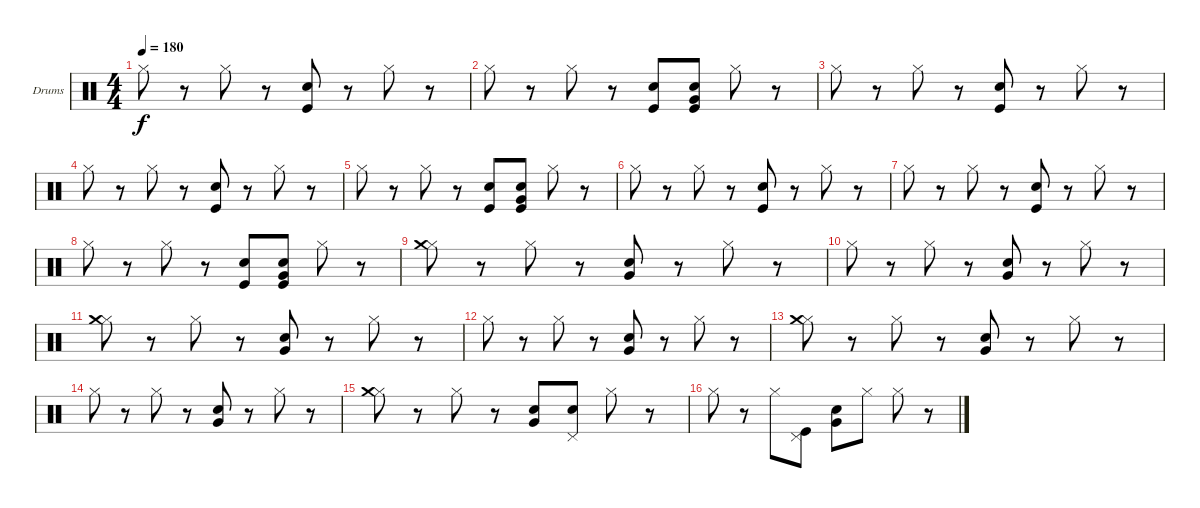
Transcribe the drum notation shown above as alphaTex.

\bracketExtendMode groupsimilarinstruments
\firstSystemTrackNameOrientation horizontal
\otherSystemsTrackNameOrientation horizontal
\track ("Drumkit" "Drums") {instrument percussion}
\staff {score}
\articulation defaults
\ts (4 4)
\tempo 180
\clef neutral
\ks c "Hi-Hat (closed)".8{dy f}
r.8 "Hi-Hat (closed)".8 r.8 ("Snare (hit) 2" "Kick (hit)").8 r.8 "Hi-Hat (closed)".8 r.8 |
"Hi-Hat (closed)".8 r.8 "Hi-Hat (closed)".8 r.8 ("Snare (hit) 2" "Kick (hit)").8 ("Snare (hit) 2" "Kick (hit)" "Very Low Tom (hit)").8 "Hi-Hat (closed)".8 r.8 |
"Hi-Hat (closed)".8 r.8 "Hi-Hat (closed)".8 r.8 ("Snare (hit) 2" "Kick (hit)").8 r.8 "Hi-Hat (closed)".8 r.8 |
"Hi-Hat (closed)".8 r.8 "Hi-Hat (closed)".8 r.8 ("Snare (hit) 2" "Kick (hit)").8 r.8 "Hi-Hat (closed)".8 r.8 |
"Hi-Hat (closed)".8 r.8 "Hi-Hat (closed)".8 r.8 ("Snare (hit) 2" "Kick (hit)").8 ("Snare (hit) 2" "Kick (hit)" "Very Low Tom (hit)").8 "Hi-Hat (closed)".8 r.8 |
"Hi-Hat (closed)".8 r.8 "Hi-Hat (closed)".8 r.8 ("Snare (hit) 2" "Kick (hit)").8 r.8 "Hi-Hat (closed)".8 r.8 |
"Hi-Hat (closed)".8 r.8 "Hi-Hat (closed)".8 r.8 ("Snare (hit) 2" "Kick (hit)").8 r.8 "Hi-Hat (closed)".8 r.8 |
"Hi-Hat (closed)".8 r.8 "Hi-Hat (closed)".8 r.8 ("Snare (hit) 2" "Kick (hit)").8 ("Snare (hit) 2" "Kick (hit)" "Very Low Tom (hit)").8 "Hi-Hat (closed)".8 r.8 |
("Hi-Hat (closed)" "Crash medium (hit)").8 r.8 "Hi-Hat (closed)".8 r.8 ("Snare (hit) 2" "Very Low Tom (hit)").8 r.8 "Hi-Hat (closed)".8 r.8 |
"Hi-Hat (closed)".8 r.8 "Hi-Hat (closed)".8 r.8 ("Snare (hit) 2" "Very Low Tom (hit)").8 r.8 "Hi-Hat (closed)".8 r.8 |
("Hi-Hat (closed)" "Crash medium (hit)").8 r.8 "Hi-Hat (closed)".8 r.8 ("Snare (hit) 2" "Very Low Tom (hit)").8 r.8 "Hi-Hat (closed)".8 r.8 |
"Hi-Hat (closed)".8 r.8 "Hi-Hat (closed)".8 r.8 ("Snare (hit) 2" "Very Low Tom (hit)").8 r.8 "Hi-Hat (closed)".8 r.8 |
("Hi-Hat (closed)" "Crash medium (hit)").8 r.8 "Hi-Hat (closed)".8 r.8 ("Snare (hit) 2" "Very Low Tom (hit)").8 r.8 "Hi-Hat (closed)".8 r.8 |
"Hi-Hat (closed)".8 r.8 "Hi-Hat (closed)".8 r.8 ("Snare (hit) 2" "Very Low Tom (hit)").8 r.8 "Hi-Hat (closed)".8 r.8 |
("Hi-Hat (closed)" "Crash medium (hit)").8 r.8 "Hi-Hat (closed)".8 r.8 ("Snare (hit) 2" "Very Low Tom (hit)").8 ("Snare (hit) 2" "Pedal Hi-Hat (hit)").8 "Hi-Hat (closed)".8 r.8 |
"Hi-Hat (closed)".8 r.8 "Hi-Hat (closed)".8 ("Pedal Hi-Hat (hit)" "Kick (hit)").8 ("Snare (hit) 2" "Very Low Tom (hit)").8 "Hi-Hat (closed)".8 "Hi-Hat (closed)".8 r.8
